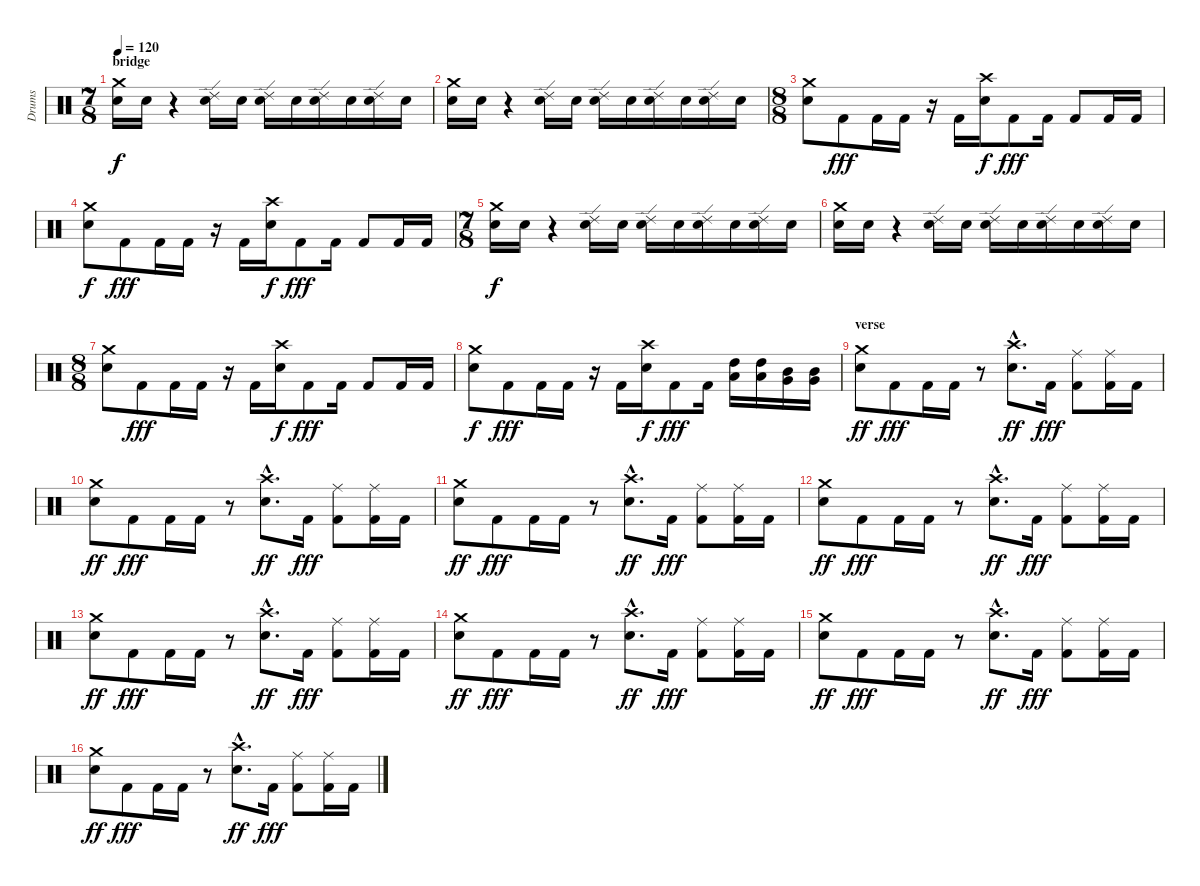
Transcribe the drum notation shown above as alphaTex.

\track ("Drums" "Drums") {instrument percussion}
\staff {score}
\articulation defaults
\ts (7 8)
\section ("" "bridge")
\tempo 120
\clef neutral
\ks c
("Snare (hit) 2" "Crash medium (hit)").16{dy f} "Snare (hit) 2".16 r.4 ("Electric Snare (hit)" "Ride (edge) 2").16 "Electric Snare (hit)".16 ("Snare (hit) 2" "Ride (edge) 2").16 "Snare (hit) 2".16 ("Electric Snare (hit)" "Ride (edge) 2").16 "Electric Snare (hit)".16 ("Snare (hit) 2" "Ride (edge) 2").16 "Snare (hit) 2".16 |
("Snare (hit) 2" "Crash medium (hit)").16 "Snare (hit) 2".16 r.4 ("Electric Snare (hit)" "Ride (edge) 2").16 "Electric Snare (hit)".16 ("Snare (hit) 2" "Ride (edge) 2").16 "Snare (hit) 2".16 ("Electric Snare (hit)" "Ride (edge) 2").16 "Electric Snare (hit)".16 ("Snare (hit) 2" "Ride (edge) 2").16 "Snare (hit) 2".16 |
\ts (8 8)
("Electric Snare (hit)" "Crash medium (hit)").8 "Kick (hit) 2".8{dy fff} "Kick (hit) 2".16 "Kick (hit) 2".16 r.16 "Kick (hit) 2".16 ("Electric Snare (hit)" "Crash high (hit)").16{dy f} "Kick (hit) 2".8{dy fff} "Kick (hit) 2".16 "Kick (hit) 2".8 "Kick (hit) 2".16 "Kick (hit) 2".16 |
("Electric Snare (hit)" "Crash medium (hit)").8{dy f} "Kick (hit) 2".8{dy fff} "Kick (hit) 2".16 "Kick (hit) 2".16 r.16 "Kick (hit) 2".16 ("Electric Snare (hit)" "Crash high (hit)").16{dy f} "Kick (hit) 2".8{dy fff} "Kick (hit) 2".16 "Kick (hit) 2".8 "Kick (hit) 2".16 "Kick (hit) 2".16 |
\ts (7 8)
("Snare (hit) 2" "Crash medium (hit)").16{dy f} "Snare (hit) 2".16 r.4 ("Electric Snare (hit)" "Ride (edge) 2").16 "Electric Snare (hit)".16 ("Snare (hit) 2" "Ride (edge) 2").16 "Snare (hit) 2".16 ("Electric Snare (hit)" "Ride (edge) 2").16 "Electric Snare (hit)".16 ("Snare (hit) 2" "Ride (edge) 2").16 "Snare (hit) 2".16 |
("Snare (hit) 2" "Crash medium (hit)").16 "Snare (hit) 2".16 r.4 ("Electric Snare (hit)" "Ride (edge) 2").16 "Electric Snare (hit)".16 ("Snare (hit) 2" "Ride (edge) 2").16 "Snare (hit) 2".16 ("Electric Snare (hit)" "Ride (edge) 2").16 "Electric Snare (hit)".16 ("Snare (hit) 2" "Ride (edge) 2").16 "Snare (hit) 2".16 |
\ts (8 8)
("Electric Snare (hit)" "Crash medium (hit)").8 "Kick (hit) 2".8{dy fff} "Kick (hit) 2".16 "Kick (hit) 2".16 r.16 "Kick (hit) 2".16 ("Electric Snare (hit)" "Crash high (hit)").16{dy f} "Kick (hit) 2".8{dy fff} "Kick (hit) 2".16 "Kick (hit) 2".8 "Kick (hit) 2".16 "Kick (hit) 2".16 |
("Electric Snare (hit)" "Crash medium (hit)").8{dy f} "Kick (hit) 2".8{dy fff} "Kick (hit) 2".16 "Kick (hit) 2".16 r.16 "Kick (hit) 2".16 ("Electric Snare (hit)" "Crash high (hit)").16{dy f} "Kick (hit) 2".8{dy fff} "Kick (hit) 2".16 ("High Tom (hit)" "Low Tom (hit)").16 ("High Tom (hit)" "Low Tom (hit)").16 ("Mid Tom (hit)" "Very Low Tom (hit)").16 ("Mid Tom (hit)" "Very Low Tom (hit)").16 |
\section ("" "verse")
("Crash medium (hit)" "Electric Snare (hit)").8{dy ff} "Kick (hit) 2".8{dy fff} "Kick (hit) 2".16 "Kick (hit) 2".16 r.8 ("Crash high (hit)"{hac} "Electric Snare (hit)"{hac}).8{d dy ff} "Kick (hit) 2".16{dy fff} ("Ride (middle)" "Kick (hit) 2").8 ("Ride (middle)" "Kick (hit) 2").16 "Kick (hit) 2".16 |
("Crash medium (hit)" "Electric Snare (hit)").8{dy ff} "Kick (hit) 2".8{dy fff} "Kick (hit) 2".16 "Kick (hit) 2".16 r.8 ("Crash high (hit)"{hac} "Electric Snare (hit)"{hac}).8{d dy ff} "Kick (hit) 2".16{dy fff} ("Ride (middle)" "Kick (hit) 2").8 ("Ride (middle)" "Kick (hit) 2").16 "Kick (hit) 2".16 |
("Crash medium (hit)" "Electric Snare (hit)").8{dy ff} "Kick (hit) 2".8{dy fff} "Kick (hit) 2".16 "Kick (hit) 2".16 r.8 ("Crash high (hit)"{hac} "Electric Snare (hit)"{hac}).8{d dy ff} "Kick (hit) 2".16{dy fff} ("Ride (middle)" "Kick (hit) 2").8 ("Ride (middle)" "Kick (hit) 2").16 "Kick (hit) 2".16 |
("Crash medium (hit)" "Electric Snare (hit)").8{dy ff} "Kick (hit) 2".8{dy fff} "Kick (hit) 2".16 "Kick (hit) 2".16 r.8 ("Crash high (hit)"{hac} "Electric Snare (hit)"{hac}).8{d dy ff} "Kick (hit) 2".16{dy fff} ("Ride (middle)" "Kick (hit) 2").8 ("Ride (middle)" "Kick (hit) 2").16 "Kick (hit) 2".16 |
("Crash medium (hit)" "Electric Snare (hit)").8{dy ff} "Kick (hit) 2".8{dy fff} "Kick (hit) 2".16 "Kick (hit) 2".16 r.8 ("Crash high (hit)"{hac} "Electric Snare (hit)"{hac}).8{d dy ff} "Kick (hit) 2".16{dy fff} ("Ride (middle)" "Kick (hit) 2").8 ("Ride (middle)" "Kick (hit) 2").16 "Kick (hit) 2".16 |
("Crash medium (hit)" "Electric Snare (hit)").8{dy ff} "Kick (hit) 2".8{dy fff} "Kick (hit) 2".16 "Kick (hit) 2".16 r.8 ("Crash high (hit)"{hac} "Electric Snare (hit)"{hac}).8{d dy ff} "Kick (hit) 2".16{dy fff} ("Ride (middle)" "Kick (hit) 2").8 ("Ride (middle)" "Kick (hit) 2").16 "Kick (hit) 2".16 |
("Crash medium (hit)" "Electric Snare (hit)").8{dy ff} "Kick (hit) 2".8{dy fff} "Kick (hit) 2".16 "Kick (hit) 2".16 r.8 ("Crash high (hit)"{hac} "Electric Snare (hit)"{hac}).8{d dy ff} "Kick (hit) 2".16{dy fff} ("Ride (middle)" "Kick (hit) 2").8 ("Ride (middle)" "Kick (hit) 2").16 "Kick (hit) 2".16 |
("Crash medium (hit)" "Electric Snare (hit)").8{dy ff} "Kick (hit) 2".8{dy fff} "Kick (hit) 2".16 "Kick (hit) 2".16 r.8 ("Crash high (hit)"{hac} "Electric Snare (hit)"{hac}).8{d dy ff} "Kick (hit) 2".16{dy fff} ("Ride (middle)" "Kick (hit) 2").8 ("Ride (middle)" "Kick (hit) 2").16 "Kick (hit) 2".16
